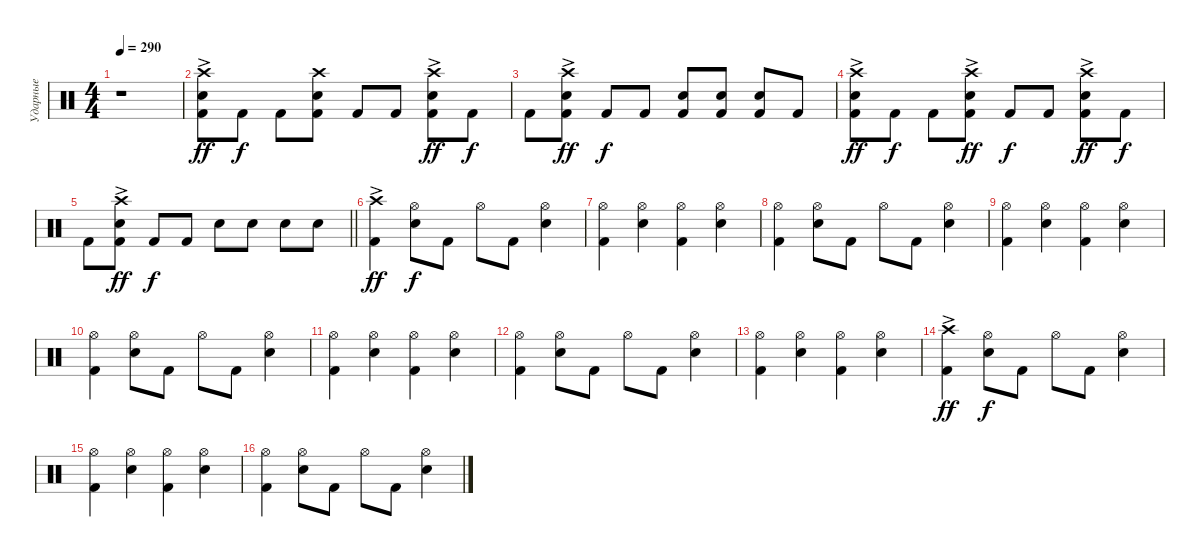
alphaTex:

\track ("Ударные" "Ударные") {instrument percussion}
\staff {score}
\articulation defaults
\ts (4 4)
\tempo 290
\clef neutral
\ks c
r.1{dy ff} |
("Kick (hit) 2" "Snare (hit) 2" "Crash high (hit)"{ac}).8 "Kick (hit) 2".8{dy f} "Kick (hit) 2".8 ("Kick (hit) 2" "Snare (hit) 2" "Crash high (hit)").8 "Kick (hit) 2".8 "Kick (hit) 2".8 ("Kick (hit) 2" "Snare (hit) 2" "Crash high (hit)"{ac}).8{dy ff} "Kick (hit) 2".8{dy f} |
"Kick (hit) 2".8 ("Kick (hit) 2" "Snare (hit) 2" "Crash high (hit)"{ac}).8{dy ff} "Kick (hit) 2".8{dy f} "Kick (hit) 2".8 ("Kick (hit) 2" "Snare (hit) 2").8 ("Kick (hit) 2" "Snare (hit) 2").8 ("Kick (hit) 2" "Snare (hit) 2").8 "Kick (hit) 2".8 |
("Kick (hit) 2" "Snare (hit) 2" "Crash high (hit)"{ac}).8{dy ff} "Kick (hit) 2".8{dy f} "Kick (hit) 2".8 ("Kick (hit) 2" "Snare (hit) 2" "Crash high (hit)"{ac}).8{dy ff} "Kick (hit) 2".8{dy f} "Kick (hit) 2".8 ("Kick (hit) 2" "Snare (hit) 2" "Crash high (hit)"{ac}).8{dy ff} "Kick (hit) 2".8{dy f} |
\barLineRight lightlight "Kick (hit) 2".8
("Kick (hit) 2" "Snare (hit) 2" "Crash high (hit)"{ac}).8{dy ff} "Kick (hit) 2".8{dy f} "Kick (hit) 2".8 "Snare (hit) 2".8 "Snare (hit) 2".8 "Snare (hit) 2".8 "Snare (hit) 2".8 |
("Kick (hit) 2" "Crash high (hit)"{ac}).4{dy ff} ("Snare (hit) 2" "Hi-Hat (open)").8{dy f} "Kick (hit) 2".8 "Hi-Hat (open)".8 "Kick (hit) 2".8 ("Snare (hit) 2" "Hi-Hat (open)").4 |
("Kick (hit) 2" "Hi-Hat (open)").4 ("Snare (hit) 2" "Hi-Hat (open)").4 ("Kick (hit) 2" "Hi-Hat (open)").4 ("Snare (hit) 2" "Hi-Hat (open)").4 |
("Kick (hit) 2" "Hi-Hat (open)").4 ("Snare (hit) 2" "Hi-Hat (open)").8 "Kick (hit) 2".8 "Hi-Hat (open)".8 "Kick (hit) 2".8 ("Snare (hit) 2" "Hi-Hat (open)").4 |
("Kick (hit) 2" "Hi-Hat (open)").4 ("Snare (hit) 2" "Hi-Hat (open)").4 ("Kick (hit) 2" "Hi-Hat (open)").4 ("Snare (hit) 2" "Hi-Hat (open)").4 |
("Kick (hit) 2" "Hi-Hat (open)").4 ("Snare (hit) 2" "Hi-Hat (open)").8 "Kick (hit) 2".8 "Hi-Hat (open)".8 "Kick (hit) 2".8 ("Snare (hit) 2" "Hi-Hat (open)").4 |
("Kick (hit) 2" "Hi-Hat (open)").4 ("Snare (hit) 2" "Hi-Hat (open)").4 ("Kick (hit) 2" "Hi-Hat (open)").4 ("Snare (hit) 2" "Hi-Hat (open)").4 |
("Kick (hit) 2" "Hi-Hat (open)").4 ("Snare (hit) 2" "Hi-Hat (open)").8 "Kick (hit) 2".8 "Hi-Hat (open)".8 "Kick (hit) 2".8 ("Snare (hit) 2" "Hi-Hat (open)").4 |
("Kick (hit) 2" "Hi-Hat (open)").4 ("Snare (hit) 2" "Hi-Hat (open)").4 ("Kick (hit) 2" "Hi-Hat (open)").4 ("Snare (hit) 2" "Hi-Hat (open)").4 |
("Kick (hit) 2" "Crash high (hit)"{ac}).4{dy ff} ("Snare (hit) 2" "Hi-Hat (open)").8{dy f} "Kick (hit) 2".8 "Hi-Hat (open)".8 "Kick (hit) 2".8 ("Snare (hit) 2" "Hi-Hat (open)").4 |
("Kick (hit) 2" "Hi-Hat (open)").4 ("Snare (hit) 2" "Hi-Hat (open)").4 ("Kick (hit) 2" "Hi-Hat (open)").4 ("Snare (hit) 2" "Hi-Hat (open)").4 |
("Kick (hit) 2" "Hi-Hat (open)").4 ("Snare (hit) 2" "Hi-Hat (open)").8 "Kick (hit) 2".8 "Hi-Hat (open)".8 "Kick (hit) 2".8 ("Snare (hit) 2" "Hi-Hat (open)").4
